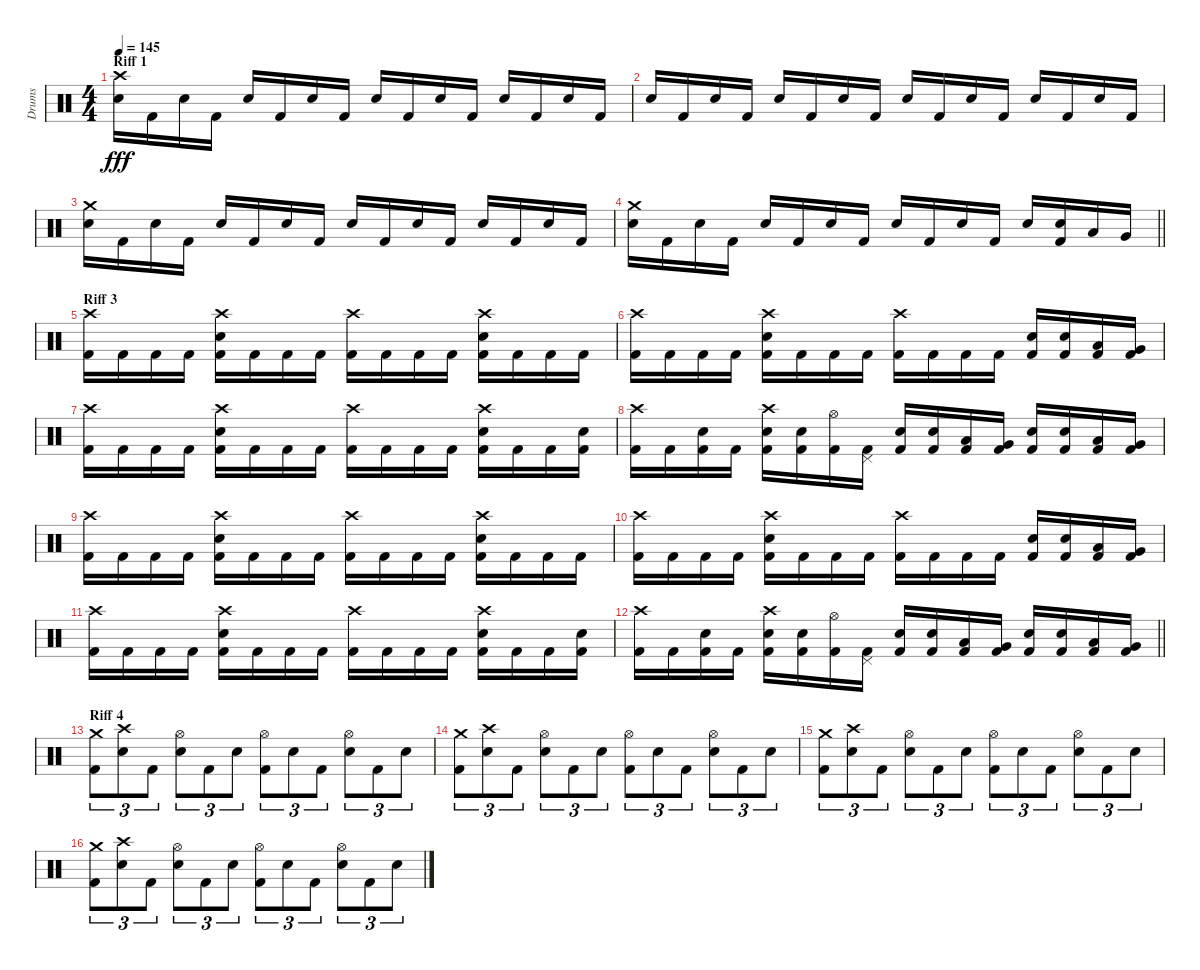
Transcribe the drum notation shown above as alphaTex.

\track ("Drums" "Drums") {instrument percussion}
\staff {score}
\articulation defaults
\ts (4 4)
\section ("" "Riff 1")
\tempo 145
\clef neutral
\ks c
("Crash high (hit)" "Snare (hit) 2").16{dy fff} "Kick (hit) 2".16 "Snare (hit) 2".16 "Kick (hit) 2".16 "Snare (hit) 2".16 "Kick (hit) 2".16 "Snare (hit) 2".16 "Kick (hit) 2".16 "Snare (hit) 2".16 "Kick (hit) 2".16 "Snare (hit) 2".16 "Kick (hit) 2".16 "Snare (hit) 2".16 "Kick (hit) 2".16 "Snare (hit) 2".16 "Kick (hit) 2".16 |
"Snare (hit) 2".16 "Kick (hit) 2".16 "Snare (hit) 2".16 "Kick (hit) 2".16 "Snare (hit) 2".16 "Kick (hit) 2".16 "Snare (hit) 2".16 "Kick (hit) 2".16 "Snare (hit) 2".16 "Kick (hit) 2".16 "Snare (hit) 2".16 "Kick (hit) 2".16 "Snare (hit) 2".16 "Kick (hit) 2".16 "Snare (hit) 2".16 "Kick (hit) 2".16 |
("Crash medium (hit)" "Snare (hit) 2").16 "Kick (hit) 2".16 "Snare (hit) 2".16 "Kick (hit) 2".16 "Snare (hit) 2".16 "Kick (hit) 2".16 "Snare (hit) 2".16 "Kick (hit) 2".16 "Snare (hit) 2".16 "Kick (hit) 2".16 "Snare (hit) 2".16 "Kick (hit) 2".16 "Snare (hit) 2".16 "Kick (hit) 2".16 "Snare (hit) 2".16 "Kick (hit) 2".16 |
\barLineRight lightlight
("Crash medium (hit)" "Snare (hit) 2").16 "Kick (hit) 2".16 "Snare (hit) 2".16 "Kick (hit) 2".16 "Snare (hit) 2".16 "Kick (hit) 2".16 "Snare (hit) 2".16 "Kick (hit) 2".16 "Snare (hit) 2".16 "Kick (hit) 2".16 "Snare (hit) 2".16 "Kick (hit) 2".16 "Snare (hit) 2".16 ("Kick (hit) 2" "Snare (hit) 2").16 "Low Tom (hit)".16 "Very Low Tom (hit)".16 |
\section ("" "Riff 3")
("Crash high (hit)" "Kick (hit) 2").16 "Kick (hit) 2".16 "Kick (hit) 2".16 "Kick (hit) 2".16 ("Crash high (hit)" "Kick (hit) 2" "Snare (hit) 2").16 "Kick (hit) 2".16 "Kick (hit) 2".16 "Kick (hit) 2".16 ("Crash high (hit)" "Kick (hit) 2").16 "Kick (hit) 2".16 "Kick (hit) 2".16 "Kick (hit) 2".16 ("Crash high (hit)" "Kick (hit) 2" "Snare (hit) 2").16 "Kick (hit) 2".16 "Kick (hit) 2".16 "Kick (hit) 2".16 |
("Crash high (hit)" "Kick (hit) 2").16 "Kick (hit) 2".16 "Kick (hit) 2".16 "Kick (hit) 2".16 ("Crash high (hit)" "Kick (hit) 2" "Snare (hit) 2").16 "Kick (hit) 2".16 "Kick (hit) 2".16 "Kick (hit) 2".16 ("Crash high (hit)" "Kick (hit) 2").16 "Kick (hit) 2".16 "Kick (hit) 2".16 "Kick (hit) 2".16 ("Kick (hit) 2" "Snare (hit) 2").16 ("Kick (hit) 2" "Snare (hit) 2").16 ("Kick (hit) 2" "Low Tom (hit)").16 ("Kick (hit) 2" "Very Low Tom (hit)").16 |
("Crash high (hit)" "Kick (hit) 2").16 "Kick (hit) 2".16 "Kick (hit) 2".16 "Kick (hit) 2".16 ("Crash high (hit)" "Kick (hit) 2" "Snare (hit) 2").16 "Kick (hit) 2".16 "Kick (hit) 2".16 "Kick (hit) 2".16 ("Crash high (hit)" "Kick (hit) 2").16 "Kick (hit) 2".16 "Kick (hit) 2".16 "Kick (hit) 2".16 ("Crash high (hit)" "Kick (hit) 2" "Snare (hit) 2").16 "Kick (hit) 2".16 "Kick (hit) 2".16 ("Kick (hit) 2" "Snare (hit) 2").16 |
("Crash high (hit)" "Kick (hit) 2").16 "Kick (hit) 2".16 ("Kick (hit) 2" "Snare (hit) 2").16 "Kick (hit) 2".16 ("Crash high (hit)" "Kick (hit) 2" "Snare (hit) 2").16 ("Kick (hit) 2" "Snare (hit) 2").16 ("Hi-Hat (open)" "Kick (hit) 2").16 ("Pedal Hi-Hat (hit)" "Kick (hit) 2").16 ("Kick (hit) 2" "Snare (hit) 2").16 ("Kick (hit) 2" "Snare (hit) 2").16 ("Kick (hit) 2" "Low Tom (hit)").16 ("Kick (hit) 2" "Very Low Tom (hit)").16 ("Kick (hit) 2" "Snare (hit) 2").16 ("Kick (hit) 2" "Snare (hit) 2").16 ("Kick (hit) 2" "Low Tom (hit)").16 ("Kick (hit) 2" "Very Low Tom (hit)").16 |
("Crash high (hit)" "Kick (hit) 2").16 "Kick (hit) 2".16 "Kick (hit) 2".16 "Kick (hit) 2".16 ("Crash high (hit)" "Kick (hit) 2" "Snare (hit) 2").16 "Kick (hit) 2".16 "Kick (hit) 2".16 "Kick (hit) 2".16 ("Crash high (hit)" "Kick (hit) 2").16 "Kick (hit) 2".16 "Kick (hit) 2".16 "Kick (hit) 2".16 ("Crash high (hit)" "Kick (hit) 2" "Snare (hit) 2").16 "Kick (hit) 2".16 "Kick (hit) 2".16 "Kick (hit) 2".16 |
("Crash high (hit)" "Kick (hit) 2").16 "Kick (hit) 2".16 "Kick (hit) 2".16 "Kick (hit) 2".16 ("Crash high (hit)" "Kick (hit) 2" "Snare (hit) 2").16 "Kick (hit) 2".16 "Kick (hit) 2".16 "Kick (hit) 2".16 ("Crash high (hit)" "Kick (hit) 2").16 "Kick (hit) 2".16 "Kick (hit) 2".16 "Kick (hit) 2".16 ("Kick (hit) 2" "Snare (hit) 2").16 ("Kick (hit) 2" "Snare (hit) 2").16 ("Kick (hit) 2" "Low Tom (hit)").16 ("Kick (hit) 2" "Very Low Tom (hit)").16 |
("Crash high (hit)" "Kick (hit) 2").16 "Kick (hit) 2".16 "Kick (hit) 2".16 "Kick (hit) 2".16 ("Crash high (hit)" "Kick (hit) 2" "Snare (hit) 2").16 "Kick (hit) 2".16 "Kick (hit) 2".16 "Kick (hit) 2".16 ("Crash high (hit)" "Kick (hit) 2").16 "Kick (hit) 2".16 "Kick (hit) 2".16 "Kick (hit) 2".16 ("Crash high (hit)" "Kick (hit) 2" "Snare (hit) 2").16 "Kick (hit) 2".16 "Kick (hit) 2".16 ("Kick (hit) 2" "Snare (hit) 2").16 |
\barLineRight lightlight
("Crash high (hit)" "Kick (hit) 2").16 "Kick (hit) 2".16 ("Kick (hit) 2" "Snare (hit) 2").16 "Kick (hit) 2".16 ("Crash high (hit)" "Kick (hit) 2" "Snare (hit) 2").16 ("Kick (hit) 2" "Snare (hit) 2").16 ("Hi-Hat (open)" "Kick (hit) 2").16 ("Pedal Hi-Hat (hit)" "Kick (hit) 2").16 ("Kick (hit) 2" "Snare (hit) 2").16 ("Kick (hit) 2" "Snare (hit) 2").16 ("Kick (hit) 2" "Low Tom (hit)").16 ("Kick (hit) 2" "Very Low Tom (hit)").16 ("Kick (hit) 2" "Snare (hit) 2").16 ("Kick (hit) 2" "Snare (hit) 2").16 ("Kick (hit) 2" "Low Tom (hit)").16 ("Kick (hit) 2" "Very Low Tom (hit)").16 |
\section ("" "Riff 4")
("Crash medium (hit)" "Kick (hit) 2").8{tu (3 2)} ("Crash high (hit)" "Snare (hit) 2").8{tu (3 2)} "Kick (hit) 2".8{tu (3 2)} ("Hi-Hat (open)" "Snare (hit) 2").8{tu (3 2)} "Kick (hit) 2".8{tu (3 2)} "Snare (hit) 2".8{tu (3 2)} ("Hi-Hat (open)" "Kick (hit) 2").8{tu (3 2)} "Snare (hit) 2".8{tu (3 2)} "Kick (hit) 2".8{tu (3 2)} ("Hi-Hat (open)" "Snare (hit) 2").8{tu (3 2)} "Kick (hit) 2".8{tu (3 2)} "Snare (hit) 2".8{tu (3 2)} |
("Crash medium (hit)" "Kick (hit) 2").8{tu (3 2)} ("Crash high (hit)" "Snare (hit) 2").8{tu (3 2)} "Kick (hit) 2".8{tu (3 2)} ("Hi-Hat (open)" "Snare (hit) 2").8{tu (3 2)} "Kick (hit) 2".8{tu (3 2)} "Snare (hit) 2".8{tu (3 2)} ("Hi-Hat (open)" "Kick (hit) 2").8{tu (3 2)} "Snare (hit) 2".8{tu (3 2)} "Kick (hit) 2".8{tu (3 2)} ("Hi-Hat (open)" "Snare (hit) 2").8{tu (3 2)} "Kick (hit) 2".8{tu (3 2)} "Snare (hit) 2".8{tu (3 2)} |
("Crash medium (hit)" "Kick (hit) 2").8{tu (3 2)} ("Crash high (hit)" "Snare (hit) 2").8{tu (3 2)} "Kick (hit) 2".8{tu (3 2)} ("Hi-Hat (open)" "Snare (hit) 2").8{tu (3 2)} "Kick (hit) 2".8{tu (3 2)} "Snare (hit) 2".8{tu (3 2)} ("Hi-Hat (open)" "Kick (hit) 2").8{tu (3 2)} "Snare (hit) 2".8{tu (3 2)} "Kick (hit) 2".8{tu (3 2)} ("Hi-Hat (open)" "Snare (hit) 2").8{tu (3 2)} "Kick (hit) 2".8{tu (3 2)} "Snare (hit) 2".8{tu (3 2)} |
("Crash medium (hit)" "Kick (hit) 2").8{tu (3 2)} ("Crash high (hit)" "Snare (hit) 2").8{tu (3 2)} "Kick (hit) 2".8{tu (3 2)} ("Hi-Hat (open)" "Snare (hit) 2").8{tu (3 2)} "Kick (hit) 2".8{tu (3 2)} "Snare (hit) 2".8{tu (3 2)} ("Hi-Hat (open)" "Kick (hit) 2").8{tu (3 2)} "Snare (hit) 2".8{tu (3 2)} "Kick (hit) 2".8{tu (3 2)} ("Hi-Hat (open)" "Snare (hit) 2").8{tu (3 2)} "Kick (hit) 2".8{tu (3 2)} "Snare (hit) 2".8{tu (3 2)}
